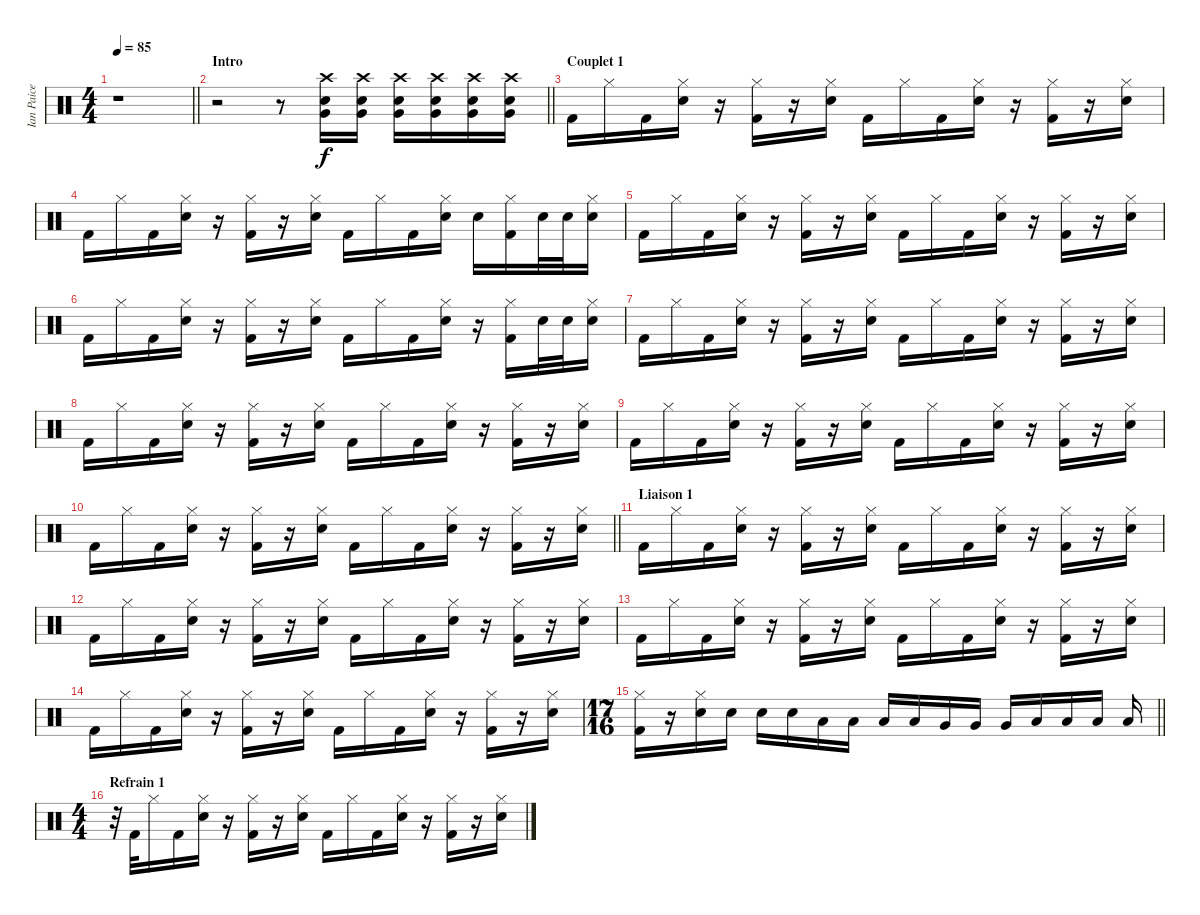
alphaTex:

\track ("Ian Paice" "Ian Paice") {instrument percussion}
\staff {score}
\articulation defaults
\ts (4 4)
\tempo 85
\clef neutral
\barLineRight lightlight
\ks c
r.1{dy f} |
\section ("" "Intro")
\barLineRight lightlight
r.2 r.8 ("Crash high (hit)" "Snare (hit) 2" "Very Low Tom (hit)").16 ("Crash high (hit)" "Snare (hit) 2" "Very Low Tom (hit)").16 ("Crash high (hit)" "Snare (hit) 2" "Very Low Tom (hit)").16 ("Crash high (hit)" "Snare (hit) 2" "Very Low Tom (hit)").16 ("Crash high (hit)" "Snare (hit) 2" "Very Low Tom (hit)").16 ("Crash high (hit)" "Snare (hit) 2" "Very Low Tom (hit)").16 |
\section ("" "Couplet 1")
"Kick (hit) 2".16 "Hi-Hat (closed)".16 "Kick (hit) 2".16 ("Hi-Hat (closed)" "Snare (hit) 2").16 r.16 ("Hi-Hat (closed)" "Kick (hit) 2").16 r.16 ("Hi-Hat (closed)" "Snare (hit) 2").16 "Kick (hit) 2".16 "Hi-Hat (closed)".16 "Kick (hit) 2".16 ("Hi-Hat (closed)" "Snare (hit) 2").16 r.16 ("Hi-Hat (closed)" "Kick (hit) 2").16 r.16 ("Hi-Hat (closed)" "Snare (hit) 2").16 |
"Kick (hit) 2".16 "Hi-Hat (closed)".16 "Kick (hit) 2".16 ("Hi-Hat (closed)" "Snare (hit) 2").16 r.16 ("Hi-Hat (closed)" "Kick (hit) 2").16 r.16 ("Hi-Hat (closed)" "Snare (hit) 2").16 "Kick (hit) 2".16 "Hi-Hat (closed)".16 "Kick (hit) 2".16 ("Hi-Hat (closed)" "Snare (hit) 2").16 "Snare (hit) 2".16 ("Hi-Hat (closed)" "Kick (hit) 2").16 "Snare (hit) 2".32 "Snare (hit) 2".32 ("Hi-Hat (closed)" "Snare (hit) 2").16 |
"Kick (hit) 2".16 "Hi-Hat (closed)".16 "Kick (hit) 2".16 ("Hi-Hat (closed)" "Snare (hit) 2").16 r.16 ("Hi-Hat (closed)" "Kick (hit) 2").16 r.16 ("Hi-Hat (closed)" "Snare (hit) 2").16 "Kick (hit) 2".16 "Hi-Hat (closed)".16 "Kick (hit) 2".16 ("Hi-Hat (closed)" "Snare (hit) 2").16 r.16 ("Hi-Hat (closed)" "Kick (hit) 2").16 r.16 ("Hi-Hat (closed)" "Snare (hit) 2").16 |
"Kick (hit) 2".16 "Hi-Hat (closed)".16 "Kick (hit) 2".16 ("Hi-Hat (closed)" "Snare (hit) 2").16 r.16 ("Hi-Hat (closed)" "Kick (hit) 2").16 r.16 ("Hi-Hat (closed)" "Snare (hit) 2").16 "Kick (hit) 2".16 "Hi-Hat (closed)".16 "Kick (hit) 2".16 ("Hi-Hat (closed)" "Snare (hit) 2").16 r.16 ("Hi-Hat (closed)" "Kick (hit) 2").16 "Snare (hit) 2".32 "Snare (hit) 2".32 ("Hi-Hat (closed)" "Snare (hit) 2").16 |
"Kick (hit) 2".16 "Hi-Hat (closed)".16 "Kick (hit) 2".16 ("Hi-Hat (closed)" "Snare (hit) 2").16 r.16 ("Hi-Hat (closed)" "Kick (hit) 2").16 r.16 ("Hi-Hat (closed)" "Snare (hit) 2").16 "Kick (hit) 2".16 "Hi-Hat (closed)".16 "Kick (hit) 2".16 ("Hi-Hat (closed)" "Snare (hit) 2").16 r.16 ("Hi-Hat (closed)" "Kick (hit) 2").16 r.16 ("Hi-Hat (closed)" "Snare (hit) 2").16 |
"Kick (hit) 2".16 "Hi-Hat (closed)".16 "Kick (hit) 2".16 ("Hi-Hat (closed)" "Snare (hit) 2").16 r.16 ("Hi-Hat (closed)" "Kick (hit) 2").16 r.16 ("Hi-Hat (closed)" "Snare (hit) 2").16 "Kick (hit) 2".16 "Hi-Hat (closed)".16 "Kick (hit) 2".16 ("Hi-Hat (closed)" "Snare (hit) 2").16 r.16 ("Hi-Hat (closed)" "Kick (hit) 2").16 r.16 ("Hi-Hat (closed)" "Snare (hit) 2").16 |
"Kick (hit) 2".16 "Hi-Hat (closed)".16 "Kick (hit) 2".16 ("Hi-Hat (closed)" "Snare (hit) 2").16 r.16 ("Hi-Hat (closed)" "Kick (hit) 2").16 r.16 ("Hi-Hat (closed)" "Snare (hit) 2").16 "Kick (hit) 2".16 "Hi-Hat (closed)".16 "Kick (hit) 2".16 ("Hi-Hat (closed)" "Snare (hit) 2").16 r.16 ("Hi-Hat (closed)" "Kick (hit) 2").16 r.16 ("Hi-Hat (closed)" "Snare (hit) 2").16 |
\barLineRight lightlight "Kick (hit) 2".16 "Hi-Hat (closed)".16 "Kick (hit) 2".16
("Hi-Hat (closed)" "Snare (hit) 2").16 r.16 ("Hi-Hat (closed)" "Kick (hit) 2").16 r.16 ("Hi-Hat (closed)" "Snare (hit) 2").16 "Kick (hit) 2".16 "Hi-Hat (closed)".16 "Kick (hit) 2".16 ("Hi-Hat (closed)" "Snare (hit) 2").16 r.16 ("Hi-Hat (closed)" "Kick (hit) 2").16 r.16 ("Hi-Hat (closed)" "Snare (hit) 2").16 |
\section ("" "Liaison 1")
"Kick (hit) 2".16 "Hi-Hat (closed)".16 "Kick (hit) 2".16 ("Hi-Hat (closed)" "Snare (hit) 2").16 r.16 ("Hi-Hat (closed)" "Kick (hit) 2").16 r.16 ("Hi-Hat (closed)" "Snare (hit) 2").16 "Kick (hit) 2".16 "Hi-Hat (closed)".16 "Kick (hit) 2".16 ("Hi-Hat (closed)" "Snare (hit) 2").16 r.16 ("Hi-Hat (closed)" "Kick (hit) 2").16 r.16 ("Hi-Hat (closed)" "Snare (hit) 2").16 |
"Kick (hit) 2".16 "Hi-Hat (closed)".16 "Kick (hit) 2".16 ("Hi-Hat (closed)" "Snare (hit) 2").16 r.16 ("Hi-Hat (closed)" "Kick (hit) 2").16 r.16 ("Hi-Hat (closed)" "Snare (hit) 2").16 "Kick (hit) 2".16 "Hi-Hat (closed)".16 "Kick (hit) 2".16 ("Hi-Hat (closed)" "Snare (hit) 2").16 r.16 ("Hi-Hat (closed)" "Kick (hit) 2").16 r.16 ("Hi-Hat (closed)" "Snare (hit) 2").16 |
"Kick (hit) 2".16 "Hi-Hat (closed)".16 "Kick (hit) 2".16 ("Hi-Hat (closed)" "Snare (hit) 2").16 r.16 ("Hi-Hat (closed)" "Kick (hit) 2").16 r.16 ("Hi-Hat (closed)" "Snare (hit) 2").16 "Kick (hit) 2".16 "Hi-Hat (closed)".16 "Kick (hit) 2".16 ("Hi-Hat (closed)" "Snare (hit) 2").16 r.16 ("Hi-Hat (closed)" "Kick (hit) 2").16 r.16 ("Hi-Hat (closed)" "Snare (hit) 2").16 |
"Kick (hit) 2".16 "Hi-Hat (closed)".16 "Kick (hit) 2".16 ("Hi-Hat (closed)" "Snare (hit) 2").16 r.16 ("Hi-Hat (closed)" "Kick (hit) 2").16 r.16 ("Hi-Hat (closed)" "Snare (hit) 2").16 "Kick (hit) 2".16 "Hi-Hat (closed)".16 "Kick (hit) 2".16 ("Hi-Hat (closed)" "Snare (hit) 2").16 r.16 ("Hi-Hat (closed)" "Kick (hit) 2").16 r.16 ("Hi-Hat (closed)" "Snare (hit) 2").16 |
\ts (17 16)
\barLineRight lightlight
("Hi-Hat (closed)" "Kick (hit) 2").16 r.16 ("Hi-Hat (closed)" "Snare (hit) 2").16 "Snare (hit) 2".16 "Snare (hit) 2".16 "Snare (hit) 2".16 "Low Tom (hit)".16 "Low Tom (hit)".16 "Low Tom (hit)".16 "Low Tom (hit)".16 "Very Low Tom (hit)".16 "Very Low Tom (hit)".16 "Very Low Tom (hit)".16 "Low Floor Tom (hit)".16 "Low Floor Tom (hit)".16 "Low Floor Tom (hit)".16 "Low Floor Tom (hit)".16 |
\ts (4 4)
\section ("" "Refrain 1")
r.32 "Kick (hit) 2".32 "Hi-Hat (closed)".16 "Kick (hit) 2".16 ("Hi-Hat (closed)" "Snare (hit) 2").16 r.16 ("Hi-Hat (closed)" "Kick (hit) 2").16 r.16 ("Hi-Hat (closed)" "Snare (hit) 2").16 "Kick (hit) 2".16 "Hi-Hat (closed)".16 "Kick (hit) 2".16 ("Hi-Hat (closed)" "Snare (hit) 2").16 r.16 ("Hi-Hat (closed)" "Kick (hit) 2").16 r.16 ("Hi-Hat (closed)" "Snare (hit) 2").16
